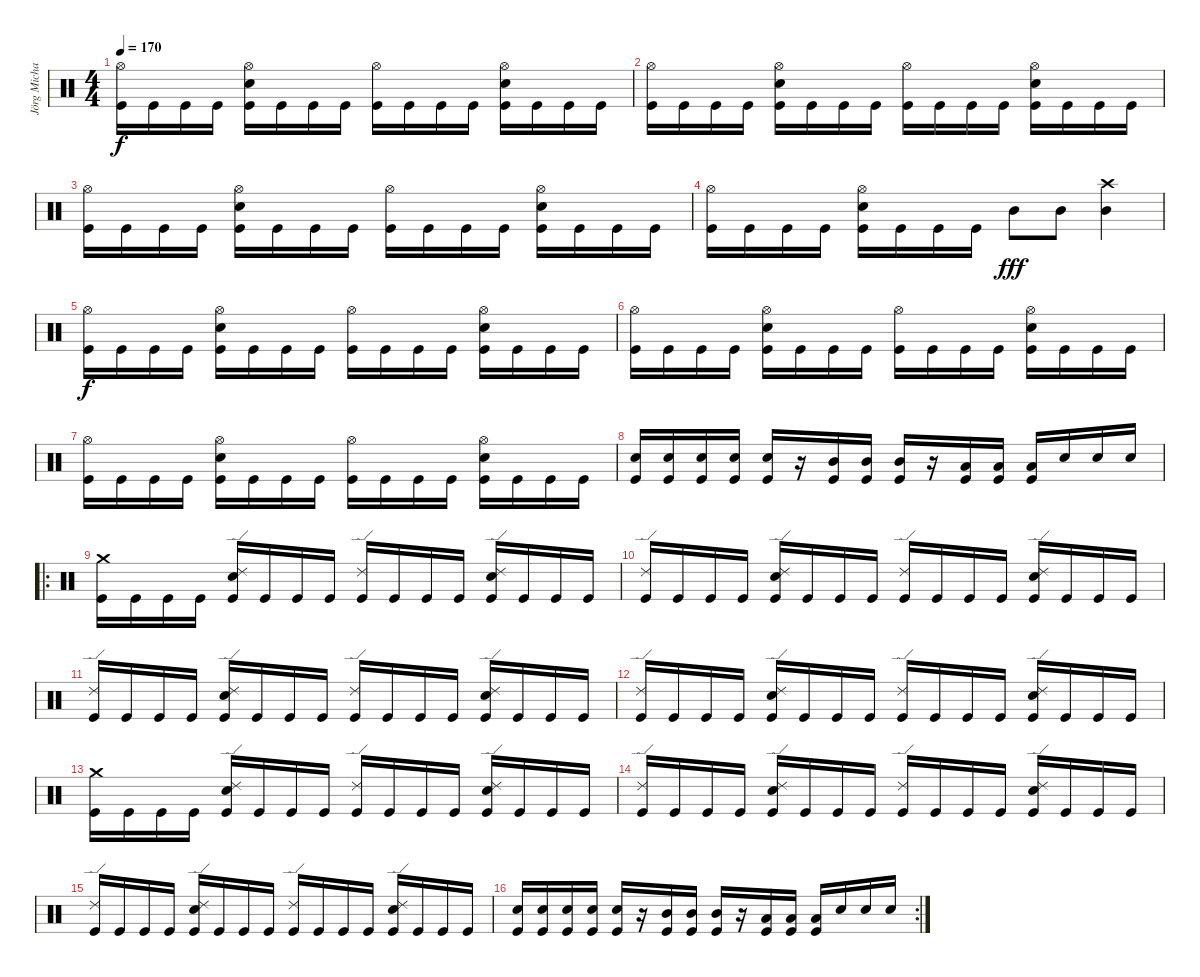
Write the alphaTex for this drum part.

\track ("Jörg Michael" "Jörg Micha") {instrument percussion}
\staff {score}
\articulation defaults
\ts (4 4)
\tempo 170
\clef neutral
\ks c
("Hi-Hat (open)" "Kick (hit)").16{dy f} "Kick (hit)".16 "Kick (hit)".16 "Kick (hit)".16 ("Hi-Hat (open)" "Electric Snare (hit)" "Kick (hit)").16 "Kick (hit)".16 "Kick (hit)".16 "Kick (hit)".16 ("Hi-Hat (open)" "Kick (hit)").16 "Kick (hit)".16 "Kick (hit)".16 "Kick (hit)".16 ("Hi-Hat (open)" "Electric Snare (hit)" "Kick (hit)").16 "Kick (hit)".16 "Kick (hit)".16 "Kick (hit)".16 |
("Hi-Hat (open)" "Kick (hit)").16 "Kick (hit)".16 "Kick (hit)".16 "Kick (hit)".16 ("Hi-Hat (open)" "Electric Snare (hit)" "Kick (hit)").16 "Kick (hit)".16 "Kick (hit)".16 "Kick (hit)".16 ("Hi-Hat (open)" "Kick (hit)").16 "Kick (hit)".16 "Kick (hit)".16 "Kick (hit)".16 ("Hi-Hat (open)" "Electric Snare (hit)" "Kick (hit)").16 "Kick (hit)".16 "Kick (hit)".16 "Kick (hit)".16 |
("Hi-Hat (open)" "Kick (hit)").16 "Kick (hit)".16 "Kick (hit)".16 "Kick (hit)".16 ("Hi-Hat (open)" "Electric Snare (hit)" "Kick (hit)").16 "Kick (hit)".16 "Kick (hit)".16 "Kick (hit)".16 ("Hi-Hat (open)" "Kick (hit)").16 "Kick (hit)".16 "Kick (hit)".16 "Kick (hit)".16 ("Hi-Hat (open)" "Electric Snare (hit)" "Kick (hit)").16 "Kick (hit)".16 "Kick (hit)".16 "Kick (hit)".16 |
("Hi-Hat (open)" "Kick (hit)").16 "Kick (hit)".16 "Kick (hit)".16 "Kick (hit)".16 ("Hi-Hat (open)" "Electric Snare (hit)" "Kick (hit)").16 "Kick (hit)".16 "Kick (hit)".16 "Kick (hit)".16 "Mid Tom (hit)".8{dy fff} "Mid Tom (hit)".8 ("Crash high (hit)" "Mid Tom (hit)").4 |
("Hi-Hat (open)" "Kick (hit)").16{dy f} "Kick (hit)".16 "Kick (hit)".16 "Kick (hit)".16 ("Hi-Hat (open)" "Electric Snare (hit)" "Kick (hit)").16 "Kick (hit)".16 "Kick (hit)".16 "Kick (hit)".16 ("Hi-Hat (open)" "Kick (hit)").16 "Kick (hit)".16 "Kick (hit)".16 "Kick (hit)".16 ("Hi-Hat (open)" "Electric Snare (hit)" "Kick (hit)").16 "Kick (hit)".16 "Kick (hit)".16 "Kick (hit)".16 |
("Hi-Hat (open)" "Kick (hit)").16 "Kick (hit)".16 "Kick (hit)".16 "Kick (hit)".16 ("Hi-Hat (open)" "Electric Snare (hit)" "Kick (hit)").16 "Kick (hit)".16 "Kick (hit)".16 "Kick (hit)".16 ("Hi-Hat (open)" "Kick (hit)").16 "Kick (hit)".16 "Kick (hit)".16 "Kick (hit)".16 ("Hi-Hat (open)" "Electric Snare (hit)" "Kick (hit)").16 "Kick (hit)".16 "Kick (hit)".16 "Kick (hit)".16 |
("Hi-Hat (open)" "Kick (hit)").16 "Kick (hit)".16 "Kick (hit)".16 "Kick (hit)".16 ("Hi-Hat (open)" "Electric Snare (hit)" "Kick (hit)").16 "Kick (hit)".16 "Kick (hit)".16 "Kick (hit)".16 ("Hi-Hat (open)" "Kick (hit)").16 "Kick (hit)".16 "Kick (hit)".16 "Kick (hit)".16 ("Hi-Hat (open)" "Electric Snare (hit)" "Kick (hit)").16 "Kick (hit)".16 "Kick (hit)".16 "Kick (hit)".16 |
("Electric Snare (hit)" "Kick (hit)").16 ("Electric Snare (hit)" "Kick (hit)").16 ("Electric Snare (hit)" "Kick (hit)").16 ("Electric Snare (hit)" "Kick (hit)").16 ("Electric Snare (hit)" "Kick (hit)").16 r.16 ("Mid Tom (hit)" "Kick (hit)").16 ("Mid Tom (hit)" "Kick (hit)").16 ("Mid Tom (hit)" "Kick (hit)").16 r.16 ("Low Tom (hit)" "Kick (hit)").16 ("Low Tom (hit)" "Kick (hit)").16 ("Low Tom (hit)" "Kick (hit)").16 "Electric Snare (hit)".16 "Electric Snare (hit)".16 "Electric Snare (hit)".16 |
\ro
("Crash medium (hit)" "Kick (hit)").16 "Kick (hit)".16 "Kick (hit)".16 "Kick (hit)".16 ("Ride (edge) 2" "Electric Snare (hit)" "Kick (hit)").16 "Kick (hit)".16 "Kick (hit)".16 "Kick (hit)".16 ("Ride (edge) 2" "Kick (hit)").16 "Kick (hit)".16 "Kick (hit)".16 "Kick (hit)".16 ("Ride (edge) 2" "Electric Snare (hit)" "Kick (hit)").16 "Kick (hit)".16 "Kick (hit)".16 "Kick (hit)".16 |
("Ride (edge) 2" "Kick (hit)").16 "Kick (hit)".16 "Kick (hit)".16 "Kick (hit)".16 ("Ride (edge) 2" "Electric Snare (hit)" "Kick (hit)").16 "Kick (hit)".16 "Kick (hit)".16 "Kick (hit)".16 ("Ride (edge) 2" "Kick (hit)").16 "Kick (hit)".16 "Kick (hit)".16 "Kick (hit)".16 ("Ride (edge) 2" "Electric Snare (hit)" "Kick (hit)").16 "Kick (hit)".16 "Kick (hit)".16 "Kick (hit)".16 |
("Ride (edge) 2" "Kick (hit)").16 "Kick (hit)".16 "Kick (hit)".16 "Kick (hit)".16 ("Ride (edge) 2" "Electric Snare (hit)" "Kick (hit)").16 "Kick (hit)".16 "Kick (hit)".16 "Kick (hit)".16 ("Ride (edge) 2" "Kick (hit)").16 "Kick (hit)".16 "Kick (hit)".16 "Kick (hit)".16 ("Ride (edge) 2" "Electric Snare (hit)" "Kick (hit)").16 "Kick (hit)".16 "Kick (hit)".16 "Kick (hit)".16 |
("Ride (edge) 2" "Kick (hit)").16 "Kick (hit)".16 "Kick (hit)".16 "Kick (hit)".16 ("Ride (edge) 2" "Electric Snare (hit)" "Kick (hit)").16 "Kick (hit)".16 "Kick (hit)".16 "Kick (hit)".16 ("Ride (edge) 2" "Kick (hit)").16 "Kick (hit)".16 "Kick (hit)".16 "Kick (hit)".16 ("Ride (edge) 2" "Electric Snare (hit)" "Kick (hit)").16 "Kick (hit)".16 "Kick (hit)".16 "Kick (hit)".16 |
("Crash medium (hit)" "Kick (hit)").16 "Kick (hit)".16 "Kick (hit)".16 "Kick (hit)".16 ("Ride (edge) 2" "Electric Snare (hit)" "Kick (hit)").16 "Kick (hit)".16 "Kick (hit)".16 "Kick (hit)".16 ("Ride (edge) 2" "Kick (hit)").16 "Kick (hit)".16 "Kick (hit)".16 "Kick (hit)".16 ("Ride (edge) 2" "Electric Snare (hit)" "Kick (hit)").16 "Kick (hit)".16 "Kick (hit)".16 "Kick (hit)".16 |
("Ride (edge) 2" "Kick (hit)").16 "Kick (hit)".16 "Kick (hit)".16 "Kick (hit)".16 ("Ride (edge) 2" "Electric Snare (hit)" "Kick (hit)").16 "Kick (hit)".16 "Kick (hit)".16 "Kick (hit)".16 ("Ride (edge) 2" "Kick (hit)").16 "Kick (hit)".16 "Kick (hit)".16 "Kick (hit)".16 ("Ride (edge) 2" "Electric Snare (hit)" "Kick (hit)").16 "Kick (hit)".16 "Kick (hit)".16 "Kick (hit)".16 |
("Ride (edge) 2" "Kick (hit)").16 "Kick (hit)".16 "Kick (hit)".16 "Kick (hit)".16 ("Ride (edge) 2" "Electric Snare (hit)" "Kick (hit)").16 "Kick (hit)".16 "Kick (hit)".16 "Kick (hit)".16 ("Ride (edge) 2" "Kick (hit)").16 "Kick (hit)".16 "Kick (hit)".16 "Kick (hit)".16 ("Ride (edge) 2" "Electric Snare (hit)" "Kick (hit)").16 "Kick (hit)".16 "Kick (hit)".16 "Kick (hit)".16 |
\rc 2
("Electric Snare (hit)" "Kick (hit)").16 ("Electric Snare (hit)" "Kick (hit)").16 ("Electric Snare (hit)" "Kick (hit)").16 ("Electric Snare (hit)" "Kick (hit)").16 ("Electric Snare (hit)" "Kick (hit)").16 r.16 ("Mid Tom (hit)" "Kick (hit)").16 ("Mid Tom (hit)" "Kick (hit)").16 ("Mid Tom (hit)" "Kick (hit)").16 r.16 ("Low Tom (hit)" "Kick (hit)").16 ("Low Tom (hit)" "Kick (hit)").16 ("Low Tom (hit)" "Kick (hit)").16 "Electric Snare (hit)".16 "Electric Snare (hit)".16 "Electric Snare (hit)".16
